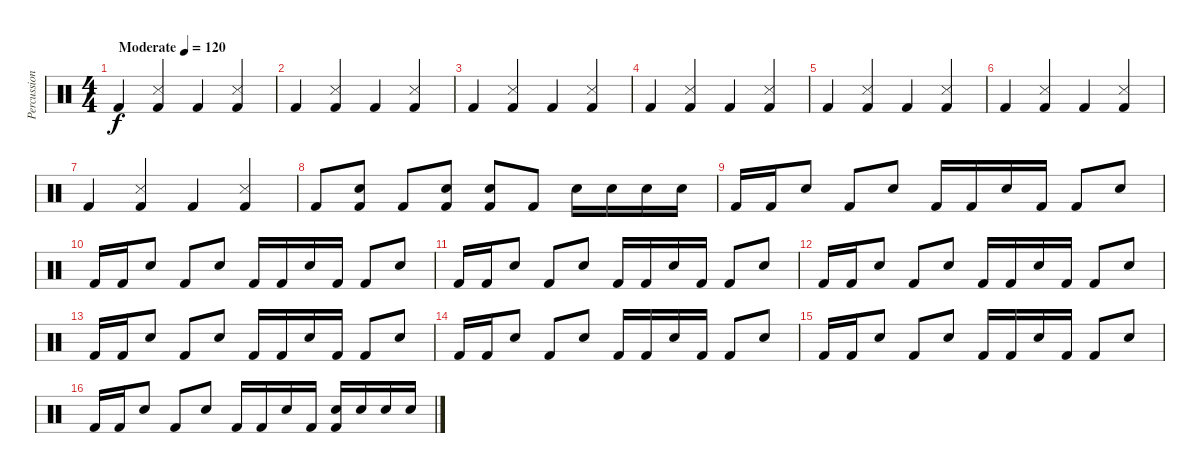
\track ("Percussion" "Percussion") {instrument percussion}
\staff {score}
\articulation defaults
\ts (4 4)
\tempo (120 "Moderate")
\clef neutral
\ks c "Kick (hit) 2".4{dy f}
("Kick (hit) 2" "Snare (side stick) 3").4 "Kick (hit) 2".4 ("Kick (hit) 2" "Snare (side stick) 3").4 |
"Kick (hit) 2".4 ("Kick (hit) 2" "Snare (side stick) 3").4 "Kick (hit) 2".4 ("Kick (hit) 2" "Snare (side stick) 3").4 |
"Kick (hit) 2".4 ("Kick (hit) 2" "Snare (side stick) 3").4 "Kick (hit) 2".4 ("Kick (hit) 2" "Snare (side stick) 3").4 |
"Kick (hit) 2".4 ("Kick (hit) 2" "Snare (side stick) 3").4 "Kick (hit) 2".4 ("Kick (hit) 2" "Snare (side stick) 3").4 |
"Kick (hit) 2".4 ("Kick (hit) 2" "Snare (side stick) 3").4 "Kick (hit) 2".4 ("Kick (hit) 2" "Snare (side stick) 3").4 |
"Kick (hit) 2".4 ("Kick (hit) 2" "Snare (side stick) 3").4 "Kick (hit) 2".4 ("Kick (hit) 2" "Snare (side stick) 3").4 |
"Kick (hit) 2".4 ("Kick (hit) 2" "Snare (side stick) 3").4 "Kick (hit) 2".4 ("Kick (hit) 2" "Snare (side stick) 3").4 |
"Kick (hit) 2".8 ("Kick (hit) 2" "Snare (hit) 2").8 "Kick (hit) 2".8 ("Kick (hit) 2" "Snare (hit) 2").8 ("Kick (hit) 2" "Snare (hit) 2").8 "Kick (hit) 2".8 "Snare (hit) 2".16 "Snare (hit) 2".16 "Snare (hit) 2".16 "Snare (hit) 2".16 |
"Kick (hit) 2".16 "Kick (hit) 2".16 "Snare (hit) 2".8 "Kick (hit) 2".8 "Snare (hit) 2".8 "Kick (hit) 2".16 "Kick (hit) 2".16 "Snare (hit) 2".16 "Kick (hit) 2".16 "Kick (hit) 2".8 "Snare (hit) 2".8 |
"Kick (hit) 2".16 "Kick (hit) 2".16 "Snare (hit) 2".8 "Kick (hit) 2".8 "Snare (hit) 2".8 "Kick (hit) 2".16 "Kick (hit) 2".16 "Snare (hit) 2".16 "Kick (hit) 2".16 "Kick (hit) 2".8 "Snare (hit) 2".8 |
"Kick (hit) 2".16 "Kick (hit) 2".16 "Snare (hit) 2".8 "Kick (hit) 2".8 "Snare (hit) 2".8 "Kick (hit) 2".16 "Kick (hit) 2".16 "Snare (hit) 2".16 "Kick (hit) 2".16 "Kick (hit) 2".8 "Snare (hit) 2".8 |
"Kick (hit) 2".16 "Kick (hit) 2".16 "Snare (hit) 2".8 "Kick (hit) 2".8 "Snare (hit) 2".8 "Kick (hit) 2".16 "Kick (hit) 2".16 "Snare (hit) 2".16 "Kick (hit) 2".16 "Kick (hit) 2".8 "Snare (hit) 2".8 |
"Kick (hit) 2".16 "Kick (hit) 2".16 "Snare (hit) 2".8 "Kick (hit) 2".8 "Snare (hit) 2".8 "Kick (hit) 2".16 "Kick (hit) 2".16 "Snare (hit) 2".16 "Kick (hit) 2".16 "Kick (hit) 2".8 "Snare (hit) 2".8 |
"Kick (hit) 2".16 "Kick (hit) 2".16 "Snare (hit) 2".8 "Kick (hit) 2".8 "Snare (hit) 2".8 "Kick (hit) 2".16 "Kick (hit) 2".16 "Snare (hit) 2".16 "Kick (hit) 2".16 "Kick (hit) 2".8 "Snare (hit) 2".8 |
"Kick (hit) 2".16 "Kick (hit) 2".16 "Snare (hit) 2".8 "Kick (hit) 2".8 "Snare (hit) 2".8 "Kick (hit) 2".16 "Kick (hit) 2".16 "Snare (hit) 2".16 "Kick (hit) 2".16 "Kick (hit) 2".8 "Snare (hit) 2".8 |
"Kick (hit) 2".16 "Kick (hit) 2".16 "Snare (hit) 2".8 "Kick (hit) 2".8 "Snare (hit) 2".8 "Kick (hit) 2".16 "Kick (hit) 2".16 "Snare (hit) 2".16 "Kick (hit) 2".16 ("Kick (hit) 2" "Snare (hit) 2").16 "Snare (hit) 2".16 "Snare (hit) 2".16 "Snare (hit) 2".16
